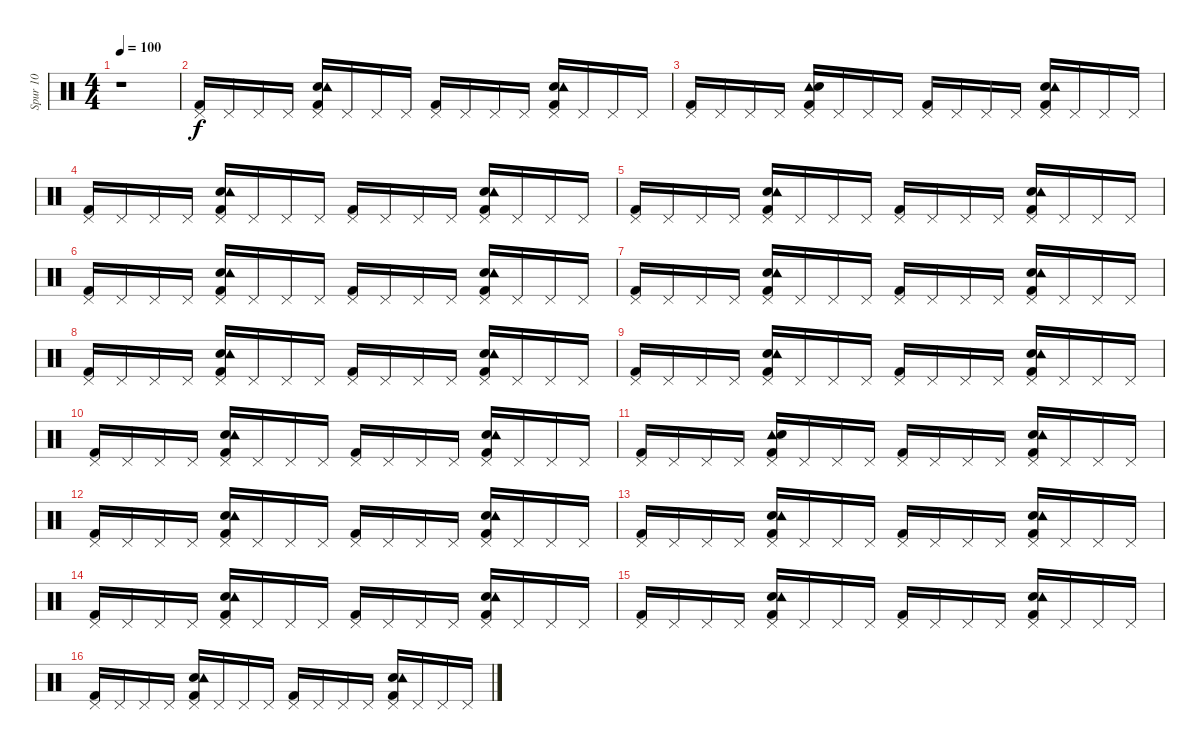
\track ("Spur 10" "Spur 10") {instrument percussion}
\staff {score}
\articulation defaults
\ts (4 4)
\tempo 100
\clef neutral
\ks c
r.1{dy f} |
("Pedal Hi-Hat (hit)" "Kick (hit) 2").16 "Pedal Hi-Hat (hit)".16 "Pedal Hi-Hat (hit)".16 "Pedal Hi-Hat (hit)".16 ("Pedal Hi-Hat (hit)" "Snare (hit) 2" "Kick (hit) 2" "Tambourine (hit)").16 "Pedal Hi-Hat (hit)".16 "Pedal Hi-Hat (hit)".16 "Pedal Hi-Hat (hit)".16 ("Pedal Hi-Hat (hit)" "Kick (hit) 2").16 "Pedal Hi-Hat (hit)".16 "Pedal Hi-Hat (hit)".16 "Pedal Hi-Hat (hit)".16 ("Pedal Hi-Hat (hit)" "Kick (hit) 2" "Snare (hit) 2" "Tambourine (hit)").16 "Pedal Hi-Hat (hit)".16 "Pedal Hi-Hat (hit)".16 "Pedal Hi-Hat (hit)".16 |
("Pedal Hi-Hat (hit)" "Kick (hit) 2").16 "Pedal Hi-Hat (hit)".16 "Pedal Hi-Hat (hit)".16 "Pedal Hi-Hat (hit)".16 ("Pedal Hi-Hat (hit)" "Tambourine (hit)" "Kick (hit) 2" "Snare (hit) 2").16 "Pedal Hi-Hat (hit)".16 "Pedal Hi-Hat (hit)".16 "Pedal Hi-Hat (hit)".16 ("Pedal Hi-Hat (hit)" "Kick (hit) 2").16 "Pedal Hi-Hat (hit)".16 "Pedal Hi-Hat (hit)".16 "Pedal Hi-Hat (hit)".16 ("Pedal Hi-Hat (hit)" "Snare (hit) 2" "Tambourine (hit)" "Kick (hit) 2").16 "Pedal Hi-Hat (hit)".16 "Pedal Hi-Hat (hit)".16 "Pedal Hi-Hat (hit)".16 |
("Pedal Hi-Hat (hit)" "Kick (hit) 2").16 "Pedal Hi-Hat (hit)".16 "Pedal Hi-Hat (hit)".16 "Pedal Hi-Hat (hit)".16 ("Pedal Hi-Hat (hit)" "Snare (hit) 2" "Kick (hit) 2" "Tambourine (hit)").16 "Pedal Hi-Hat (hit)".16 "Pedal Hi-Hat (hit)".16 "Pedal Hi-Hat (hit)".16 ("Pedal Hi-Hat (hit)" "Kick (hit) 2").16 "Pedal Hi-Hat (hit)".16 "Pedal Hi-Hat (hit)".16 "Pedal Hi-Hat (hit)".16 ("Pedal Hi-Hat (hit)" "Snare (hit) 2" "Kick (hit) 2" "Tambourine (hit)").16 "Pedal Hi-Hat (hit)".16 "Pedal Hi-Hat (hit)".16 "Pedal Hi-Hat (hit)".16 |
("Pedal Hi-Hat (hit)" "Kick (hit) 2").16 "Pedal Hi-Hat (hit)".16 "Pedal Hi-Hat (hit)".16 "Pedal Hi-Hat (hit)".16 ("Pedal Hi-Hat (hit)" "Kick (hit) 2" "Snare (hit) 2" "Tambourine (hit)").16 "Pedal Hi-Hat (hit)".16 "Pedal Hi-Hat (hit)".16 "Pedal Hi-Hat (hit)".16 ("Pedal Hi-Hat (hit)" "Kick (hit) 2").16 "Pedal Hi-Hat (hit)".16 "Pedal Hi-Hat (hit)".16 "Pedal Hi-Hat (hit)".16 ("Pedal Hi-Hat (hit)" "Kick (hit) 2" "Snare (hit) 2" "Tambourine (hit)").16 "Pedal Hi-Hat (hit)".16 "Pedal Hi-Hat (hit)".16 "Pedal Hi-Hat (hit)".16 |
("Kick (hit) 2" "Pedal Hi-Hat (hit)").16 "Pedal Hi-Hat (hit)".16 "Pedal Hi-Hat (hit)".16 "Pedal Hi-Hat (hit)".16 ("Kick (hit) 2" "Snare (hit) 2" "Tambourine (hit)" "Pedal Hi-Hat (hit)").16 "Pedal Hi-Hat (hit)".16 "Pedal Hi-Hat (hit)".16 "Pedal Hi-Hat (hit)".16 ("Kick (hit) 2" "Pedal Hi-Hat (hit)").16 "Pedal Hi-Hat (hit)".16 "Pedal Hi-Hat (hit)".16 "Pedal Hi-Hat (hit)".16 ("Snare (hit) 2" "Kick (hit) 2" "Tambourine (hit)" "Pedal Hi-Hat (hit)").16 "Pedal Hi-Hat (hit)".16 "Pedal Hi-Hat (hit)".16 "Pedal Hi-Hat (hit)".16 |
("Kick (hit) 2" "Pedal Hi-Hat (hit)").16 "Pedal Hi-Hat (hit)".16 "Pedal Hi-Hat (hit)".16 "Pedal Hi-Hat (hit)".16 ("Kick (hit) 2" "Snare (hit) 2" "Tambourine (hit)" "Pedal Hi-Hat (hit)").16 "Pedal Hi-Hat (hit)".16 "Pedal Hi-Hat (hit)".16 "Pedal Hi-Hat (hit)".16 ("Kick (hit) 2" "Pedal Hi-Hat (hit)").16 "Pedal Hi-Hat (hit)".16 "Pedal Hi-Hat (hit)".16 "Pedal Hi-Hat (hit)".16 ("Kick (hit) 2" "Snare (hit) 2" "Tambourine (hit)" "Pedal Hi-Hat (hit)").16 "Pedal Hi-Hat (hit)".16 "Pedal Hi-Hat (hit)".16 "Pedal Hi-Hat (hit)".16 |
("Kick (hit) 2" "Pedal Hi-Hat (hit)").16 "Pedal Hi-Hat (hit)".16 "Pedal Hi-Hat (hit)".16 "Pedal Hi-Hat (hit)".16 ("Snare (hit) 2" "Kick (hit) 2" "Tambourine (hit)" "Pedal Hi-Hat (hit)").16 "Pedal Hi-Hat (hit)".16 "Pedal Hi-Hat (hit)".16 "Pedal Hi-Hat (hit)".16 ("Kick (hit) 2" "Pedal Hi-Hat (hit)").16 "Pedal Hi-Hat (hit)".16 "Pedal Hi-Hat (hit)".16 "Pedal Hi-Hat (hit)".16 ("Kick (hit) 2" "Snare (hit) 2" "Tambourine (hit)" "Pedal Hi-Hat (hit)").16 "Pedal Hi-Hat (hit)".16 "Pedal Hi-Hat (hit)".16 "Pedal Hi-Hat (hit)".16 |
("Kick (hit) 2" "Pedal Hi-Hat (hit)").16 "Pedal Hi-Hat (hit)".16 "Pedal Hi-Hat (hit)".16 "Pedal Hi-Hat (hit)".16 ("Snare (hit) 2" "Kick (hit) 2" "Tambourine (hit)" "Pedal Hi-Hat (hit)").16 "Pedal Hi-Hat (hit)".16 "Pedal Hi-Hat (hit)".16 "Pedal Hi-Hat (hit)".16 ("Kick (hit) 2" "Pedal Hi-Hat (hit)").16 "Pedal Hi-Hat (hit)".16 "Pedal Hi-Hat (hit)".16 "Pedal Hi-Hat (hit)".16 ("Kick (hit) 2" "Snare (hit) 2" "Tambourine (hit)" "Pedal Hi-Hat (hit)").16 "Pedal Hi-Hat (hit)".16 "Pedal Hi-Hat (hit)".16 "Pedal Hi-Hat (hit)".16 |
("Pedal Hi-Hat (hit)" "Kick (hit) 2").16 "Pedal Hi-Hat (hit)".16 "Pedal Hi-Hat (hit)".16 "Pedal Hi-Hat (hit)".16 ("Pedal Hi-Hat (hit)" "Snare (hit) 2" "Kick (hit) 2" "Tambourine (hit)").16 "Pedal Hi-Hat (hit)".16 "Pedal Hi-Hat (hit)".16 "Pedal Hi-Hat (hit)".16 ("Pedal Hi-Hat (hit)" "Kick (hit) 2").16 "Pedal Hi-Hat (hit)".16 "Pedal Hi-Hat (hit)".16 "Pedal Hi-Hat (hit)".16 ("Pedal Hi-Hat (hit)" "Kick (hit) 2" "Snare (hit) 2" "Tambourine (hit)").16 "Pedal Hi-Hat (hit)".16 "Pedal Hi-Hat (hit)".16 "Pedal Hi-Hat (hit)".16 |
("Pedal Hi-Hat (hit)" "Kick (hit) 2").16 "Pedal Hi-Hat (hit)".16 "Pedal Hi-Hat (hit)".16 "Pedal Hi-Hat (hit)".16 ("Pedal Hi-Hat (hit)" "Tambourine (hit)" "Kick (hit) 2" "Snare (hit) 2").16 "Pedal Hi-Hat (hit)".16 "Pedal Hi-Hat (hit)".16 "Pedal Hi-Hat (hit)".16 ("Pedal Hi-Hat (hit)" "Kick (hit) 2").16 "Pedal Hi-Hat (hit)".16 "Pedal Hi-Hat (hit)".16 "Pedal Hi-Hat (hit)".16 ("Pedal Hi-Hat (hit)" "Snare (hit) 2" "Tambourine (hit)" "Kick (hit) 2").16 "Pedal Hi-Hat (hit)".16 "Pedal Hi-Hat (hit)".16 "Pedal Hi-Hat (hit)".16 |
("Pedal Hi-Hat (hit)" "Kick (hit) 2").16 "Pedal Hi-Hat (hit)".16 "Pedal Hi-Hat (hit)".16 "Pedal Hi-Hat (hit)".16 ("Pedal Hi-Hat (hit)" "Snare (hit) 2" "Kick (hit) 2" "Tambourine (hit)").16 "Pedal Hi-Hat (hit)".16 "Pedal Hi-Hat (hit)".16 "Pedal Hi-Hat (hit)".16 ("Pedal Hi-Hat (hit)" "Kick (hit) 2").16 "Pedal Hi-Hat (hit)".16 "Pedal Hi-Hat (hit)".16 "Pedal Hi-Hat (hit)".16 ("Pedal Hi-Hat (hit)" "Snare (hit) 2" "Kick (hit) 2" "Tambourine (hit)").16 "Pedal Hi-Hat (hit)".16 "Pedal Hi-Hat (hit)".16 "Pedal Hi-Hat (hit)".16 |
("Pedal Hi-Hat (hit)" "Kick (hit) 2").16 "Pedal Hi-Hat (hit)".16 "Pedal Hi-Hat (hit)".16 "Pedal Hi-Hat (hit)".16 ("Pedal Hi-Hat (hit)" "Kick (hit) 2" "Snare (hit) 2" "Tambourine (hit)").16 "Pedal Hi-Hat (hit)".16 "Pedal Hi-Hat (hit)".16 "Pedal Hi-Hat (hit)".16 ("Pedal Hi-Hat (hit)" "Kick (hit) 2").16 "Pedal Hi-Hat (hit)".16 "Pedal Hi-Hat (hit)".16 "Pedal Hi-Hat (hit)".16 ("Pedal Hi-Hat (hit)" "Kick (hit) 2" "Snare (hit) 2" "Tambourine (hit)").16 "Pedal Hi-Hat (hit)".16 "Pedal Hi-Hat (hit)".16 "Pedal Hi-Hat (hit)".16 |
("Kick (hit) 2" "Pedal Hi-Hat (hit)").16 "Pedal Hi-Hat (hit)".16 "Pedal Hi-Hat (hit)".16 "Pedal Hi-Hat (hit)".16 ("Kick (hit) 2" "Snare (hit) 2" "Tambourine (hit)" "Pedal Hi-Hat (hit)").16 "Pedal Hi-Hat (hit)".16 "Pedal Hi-Hat (hit)".16 "Pedal Hi-Hat (hit)".16 ("Kick (hit) 2" "Pedal Hi-Hat (hit)").16 "Pedal Hi-Hat (hit)".16 "Pedal Hi-Hat (hit)".16 "Pedal Hi-Hat (hit)".16 ("Snare (hit) 2" "Kick (hit) 2" "Tambourine (hit)" "Pedal Hi-Hat (hit)").16 "Pedal Hi-Hat (hit)".16 "Pedal Hi-Hat (hit)".16 "Pedal Hi-Hat (hit)".16 |
("Kick (hit) 2" "Pedal Hi-Hat (hit)").16 "Pedal Hi-Hat (hit)".16 "Pedal Hi-Hat (hit)".16 "Pedal Hi-Hat (hit)".16 ("Kick (hit) 2" "Snare (hit) 2" "Tambourine (hit)" "Pedal Hi-Hat (hit)").16 "Pedal Hi-Hat (hit)".16 "Pedal Hi-Hat (hit)".16 "Pedal Hi-Hat (hit)".16 ("Kick (hit) 2" "Pedal Hi-Hat (hit)").16 "Pedal Hi-Hat (hit)".16 "Pedal Hi-Hat (hit)".16 "Pedal Hi-Hat (hit)".16 ("Kick (hit) 2" "Snare (hit) 2" "Tambourine (hit)" "Pedal Hi-Hat (hit)").16 "Pedal Hi-Hat (hit)".16 "Pedal Hi-Hat (hit)".16 "Pedal Hi-Hat (hit)".16 |
("Kick (hit) 2" "Pedal Hi-Hat (hit)").16 "Pedal Hi-Hat (hit)".16 "Pedal Hi-Hat (hit)".16 "Pedal Hi-Hat (hit)".16 ("Snare (hit) 2" "Kick (hit) 2" "Tambourine (hit)" "Pedal Hi-Hat (hit)").16 "Pedal Hi-Hat (hit)".16 "Pedal Hi-Hat (hit)".16 "Pedal Hi-Hat (hit)".16 ("Kick (hit) 2" "Pedal Hi-Hat (hit)").16 "Pedal Hi-Hat (hit)".16 "Pedal Hi-Hat (hit)".16 "Pedal Hi-Hat (hit)".16 ("Kick (hit) 2" "Snare (hit) 2" "Tambourine (hit)" "Pedal Hi-Hat (hit)").16 "Pedal Hi-Hat (hit)".16 "Pedal Hi-Hat (hit)".16 "Pedal Hi-Hat (hit)".16
